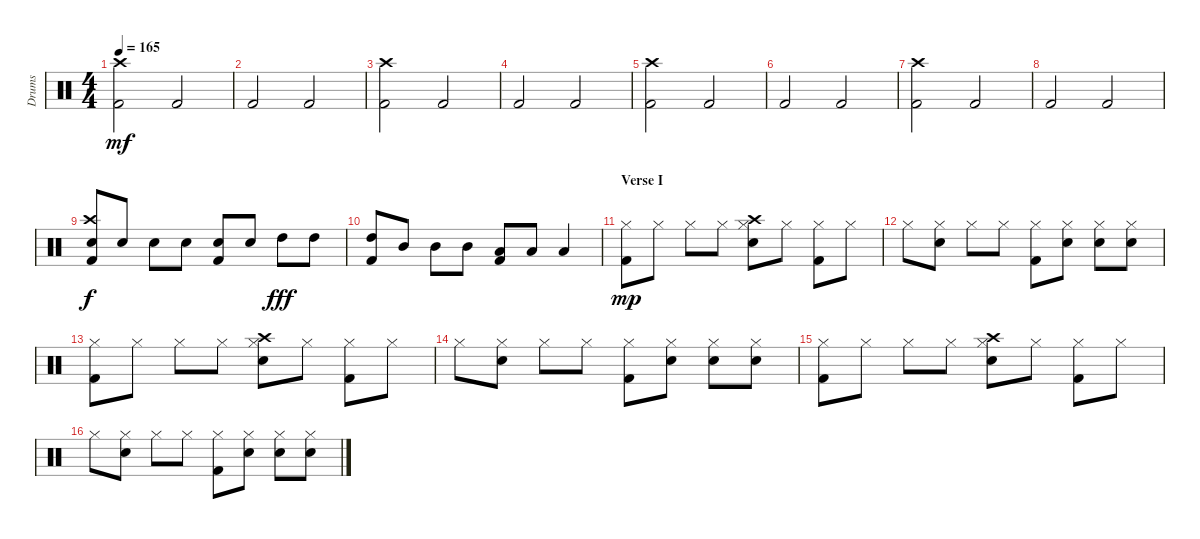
\track ("Drums" "Drums") {instrument percussion}
\staff {score}
\articulation defaults
\ts (4 4)
\tempo 165
\clef neutral
\ks c
("Kick (hit) 2" "Crash high (hit)").2{dy mf} "Kick (hit) 2".2 |
"Kick (hit) 2".2 "Kick (hit) 2".2 |
("Kick (hit) 2" "Crash high (hit)").2 "Kick (hit) 2".2 |
"Kick (hit) 2".2 "Kick (hit) 2".2 |
("Kick (hit) 2" "Crash high (hit)").2 "Kick (hit) 2".2 |
"Kick (hit) 2".2 "Kick (hit) 2".2 |
("Kick (hit) 2" "Crash high (hit)").2 "Kick (hit) 2".2 |
"Kick (hit) 2".2 "Kick (hit) 2".2 |
("Kick (hit) 2" "Electric Snare (hit)" "Crash high (hit)").8{dy f} "Electric Snare (hit)".8 "Electric Snare (hit)".8 "Snare (hit) 2".8 ("Kick (hit) 2" "Snare (hit) 2").8 "Snare (hit) 2".8 "High Tom (hit)".8{dy fff} "High Tom (hit)".8 |
("Kick (hit) 2" "High Tom (hit)").8 "Mid Tom (hit)".8 "Mid Tom (hit)".8 "Mid Tom (hit)".8 ("Kick (hit) 2" "Low Tom (hit)").8 "Low Tom (hit)".8 "Low Tom (hit)".4 |
\section ("" "Verse I")
("Hi-Hat (closed)" "Kick (hit) 2").8{dy mp} "Hi-Hat (closed)".8 "Hi-Hat (closed)".8 "Hi-Hat (closed)".8 ("Hi-Hat (closed)" "Snare (hit) 2" "Crash high (hit)").8 "Hi-Hat (closed)".8 ("Hi-Hat (closed)" "Kick (hit) 2").8 "Hi-Hat (closed)".8 |
"Hi-Hat (closed)".8 ("Hi-Hat (closed)" "Snare (hit) 2").8 "Hi-Hat (closed)".8 "Hi-Hat (closed)".8 ("Hi-Hat (closed)" "Kick (hit) 2").8 ("Hi-Hat (closed)" "Electric Snare (hit)").8 ("Hi-Hat (closed)" "Electric Snare (hit)").8 ("Hi-Hat (closed)" "Snare (hit) 2").8 |
("Hi-Hat (closed)" "Kick (hit) 2").8 "Hi-Hat (closed)".8 "Hi-Hat (closed)".8 "Hi-Hat (closed)".8 ("Hi-Hat (closed)" "Snare (hit) 2" "Crash high (hit)").8 "Hi-Hat (closed)".8 ("Hi-Hat (closed)" "Kick (hit) 2").8 "Hi-Hat (closed)".8 |
"Hi-Hat (closed)".8 ("Hi-Hat (closed)" "Snare (hit) 2").8 "Hi-Hat (closed)".8 "Hi-Hat (closed)".8 ("Hi-Hat (closed)" "Kick (hit) 2").8 ("Hi-Hat (closed)" "Electric Snare (hit)").8 ("Hi-Hat (closed)" "Electric Snare (hit)").8 ("Hi-Hat (closed)" "Snare (hit) 2").8 |
("Hi-Hat (closed)" "Kick (hit) 2").8 "Hi-Hat (closed)".8 "Hi-Hat (closed)".8 "Hi-Hat (closed)".8 ("Hi-Hat (closed)" "Snare (hit) 2" "Crash high (hit)").8 "Hi-Hat (closed)".8 ("Hi-Hat (closed)" "Kick (hit) 2").8 "Hi-Hat (closed)".8 |
"Hi-Hat (closed)".8 ("Hi-Hat (closed)" "Snare (hit) 2").8 "Hi-Hat (closed)".8 "Hi-Hat (closed)".8 ("Hi-Hat (closed)" "Kick (hit) 2").8 ("Hi-Hat (closed)" "Electric Snare (hit)").8 ("Hi-Hat (closed)" "Electric Snare (hit)").8 ("Hi-Hat (closed)" "Snare (hit) 2").8
